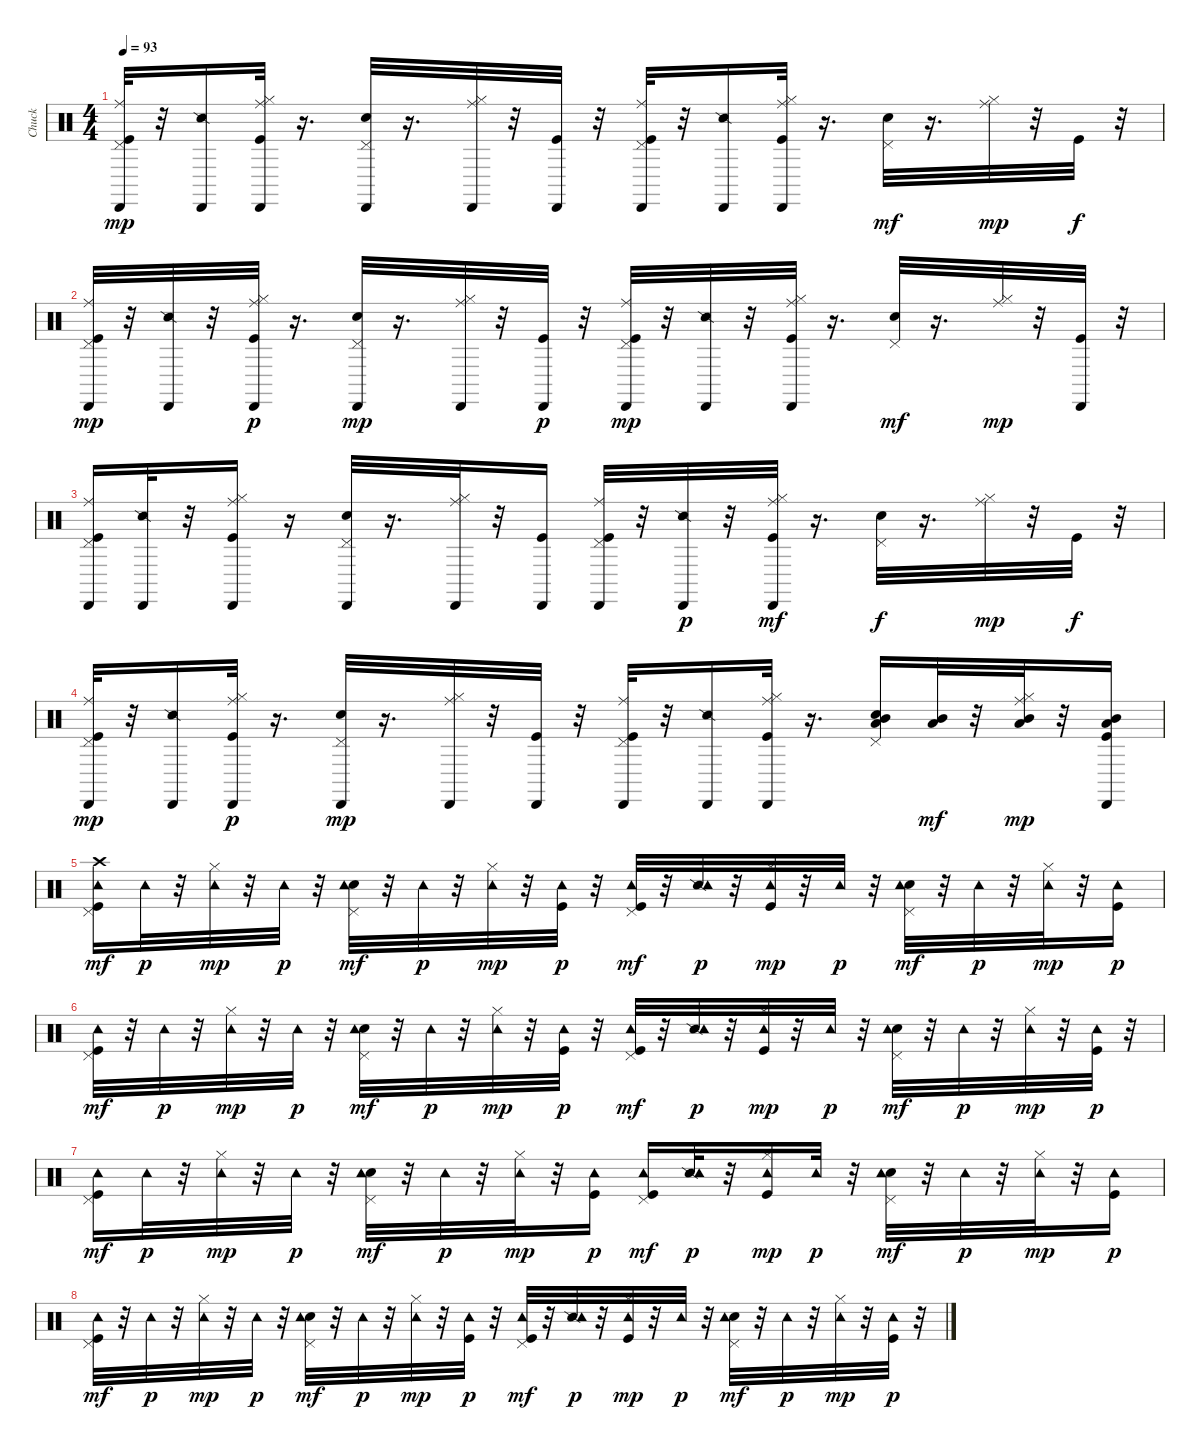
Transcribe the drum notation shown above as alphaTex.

\track ("Chuck" "Chuck") {instrument percussion}
\staff {score}
\articulation defaults
\ts (4 4)
\tempo 93
\clef neutral
\ks c
("Kick (hit)" "Pedal Hi-Hat (hit)" "Ride (middle)" "Cabasa (hit)").32{dy mp} r.32 ("Snare (side stick) 2" "Cabasa (hit)").16 ("Kick (hit)" "Hi-Hat (closed)" "Ride (middle)" "Cabasa (hit)").32 r.16{d} ("Electric Snare (hit)" "Pedal Hi-Hat (hit)" "Cabasa (hit)").32 r.16{d} ("Hi-Hat (closed)" "Ride (middle)" "Cabasa (hit)").32 r.32 ("Kick (hit)" "Cabasa (hit)").32 r.32 ("Kick (hit)" "Pedal Hi-Hat (hit)" "Ride (middle)" "Cabasa (hit)").32 r.32 ("Snare (side stick) 2" "Cabasa (hit)").16 ("Kick (hit)" "Hi-Hat (closed)" "Ride (middle)" "Cabasa (hit)").32 r.16{d} ("Electric Snare (hit)" "Pedal Hi-Hat (hit)").32{dy mf} r.16{d} ("Hi-Hat (closed)" "Ride (middle)").32{dy mp} r.32 "Kick (hit)".32{dy f} r.32 |
("Kick (hit)" "Pedal Hi-Hat (hit)" "Ride (middle)" "Cabasa (hit)").32{dy mp} r.32 ("Snare (side stick) 2" "Cabasa (hit)").32 r.32 ("Kick (hit)" "Hi-Hat (closed)" "Ride (middle)" "Cabasa (hit)").32{dy p} r.16{d} ("Electric Snare (hit)" "Pedal Hi-Hat (hit)" "Cabasa (hit)").32{dy mp} r.16{d} ("Hi-Hat (closed)" "Ride (middle)" "Cabasa (hit)").32 r.32 ("Kick (hit)" "Cabasa (hit)").32{dy p} r.32 ("Kick (hit)" "Pedal Hi-Hat (hit)" "Ride (middle)" "Cabasa (hit)").32{dy mp} r.32 ("Snare (side stick) 2" "Cabasa (hit)").32 r.32 ("Kick (hit)" "Hi-Hat (closed)" "Ride (middle)" "Cabasa (hit)").32 r.16{d} ("Electric Snare (hit)" "Pedal Hi-Hat (hit)").32{dy mf} r.16{d} ("Hi-Hat (closed)" "Ride (middle)").32{dy mp} r.32 ("Kick (hit)" "Cabasa (hit)").32 r.32 |
("Kick (hit)" "Pedal Hi-Hat (hit)" "Ride (middle)" "Cabasa (hit)").16 ("Snare (side stick) 2" "Cabasa (hit)").32 r.32 ("Kick (hit)" "Hi-Hat (closed)" "Ride (middle)" "Cabasa (hit)").16 r.16 ("Electric Snare (hit)" "Pedal Hi-Hat (hit)" "Cabasa (hit)").32 r.16{d} ("Hi-Hat (closed)" "Ride (middle)" "Cabasa (hit)").32 r.32 ("Kick (hit)" "Cabasa (hit)").16 ("Kick (hit)" "Pedal Hi-Hat (hit)" "Ride (middle)" "Cabasa (hit)").32 r.32 ("Snare (side stick) 2" "Cabasa (hit)").32{dy p} r.32 ("Kick (hit)" "Hi-Hat (closed)" "Ride (middle)" "Cabasa (hit)").32{dy mf} r.16{d} ("Electric Snare (hit)" "Pedal Hi-Hat (hit)").32{dy f} r.16{d} ("Hi-Hat (closed)" "Ride (middle)").32{dy mp} r.32 "Kick (hit)".32{dy f} r.32 |
("Kick (hit)" "Pedal Hi-Hat (hit)" "Ride (middle)" "Cabasa (hit)").32{dy mp} r.32 ("Snare (side stick) 2" "Cabasa (hit)").16 ("Kick (hit)" "Hi-Hat (closed)" "Ride (middle)" "Cabasa (hit)").32{dy p} r.16{d} ("Electric Snare (hit)" "Pedal Hi-Hat (hit)" "Cabasa (hit)").32{dy mp} r.16{d} ("Hi-Hat (closed)" "Ride (middle)" "Cabasa (hit)").32 r.32 ("Kick (hit)" "Cabasa (hit)").32 r.32 ("Kick (hit)" "Pedal Hi-Hat (hit)" "Ride (middle)" "Cabasa (hit)").32 r.32 ("Snare (side stick) 2" "Cabasa (hit)").16 ("Kick (hit)" "Hi-Hat (closed)" "Ride (middle)" "Cabasa (hit)").32 r.16{d} ("Electric Snare (hit)" "Pedal Hi-Hat (hit)" "Low Tom (hit)" "Mid Tom (hit)").16 ("Low Tom (hit)" "Mid Tom (hit)").32{dy mf} r.32 ("Hi-Hat (closed)" "Low Tom (hit)" "Mid Tom (hit)" "Ride (middle)").32{dy mp} r.32 ("Kick (hit)" "Low Tom (hit)" "Mid Tom (hit)" "Cabasa (hit)").16 |
("Kick (hit)" "Pedal Hi-Hat (hit)" "Crash high (hit)" "Tambourine (hit)").16{dy mf} "Tambourine (hit)".32{dy p} r.32 ("Hi-Hat (closed)" "Tambourine (hit)").32{dy mp} r.32 "Tambourine (hit)".32{dy p} r.32 ("Electric Snare (hit)" "Pedal Hi-Hat (hit)" "Tambourine (hit)").32{dy mf} r.32 "Tambourine (hit)".32{dy p} r.32 ("Hi-Hat (closed)" "Tambourine (hit)").32{dy mp} r.32 ("Kick (hit)" "Tambourine (hit)").32{dy p} r.32 ("Kick (hit)" "Pedal Hi-Hat (hit)" "Tambourine (hit)").32{dy mf} r.32 ("Snare (side stick) 2" "Tambourine (hit)").32{dy p} r.32 ("Kick (hit)" "Hi-Hat (closed)" "Tambourine (hit)").32{dy mp} r.32 "Tambourine (hit)".32{dy p} r.32 ("Electric Snare (hit)" "Pedal Hi-Hat (hit)" "Tambourine (hit)").32{dy mf} r.32 "Tambourine (hit)".32{dy p} r.32 ("Hi-Hat (closed)" "Tambourine (hit)").32{dy mp} r.32 ("Kick (hit)" "Tambourine (hit)").16{dy p} |
("Kick (hit)" "Pedal Hi-Hat (hit)" "Tambourine (hit)").32{dy mf} r.32 "Tambourine (hit)".32{dy p} r.32 ("Hi-Hat (closed)" "Tambourine (hit)").32{dy mp} r.32 "Tambourine (hit)".32{dy p} r.32 ("Electric Snare (hit)" "Pedal Hi-Hat (hit)" "Tambourine (hit)").32{dy mf} r.32 "Tambourine (hit)".32{dy p} r.32 ("Hi-Hat (closed)" "Tambourine (hit)").32{dy mp} r.32 ("Kick (hit)" "Tambourine (hit)").32{dy p} r.32 ("Kick (hit)" "Pedal Hi-Hat (hit)" "Tambourine (hit)").32{dy mf} r.32 ("Snare (side stick) 2" "Tambourine (hit)").32{dy p} r.32 ("Kick (hit)" "Hi-Hat (closed)" "Tambourine (hit)").32{dy mp} r.32 "Tambourine (hit)".32{dy p} r.32 ("Electric Snare (hit)" "Pedal Hi-Hat (hit)" "Tambourine (hit)").32{dy mf} r.32 "Tambourine (hit)".32{dy p} r.32 ("Hi-Hat (closed)" "Tambourine (hit)").32{dy mp} r.32 ("Kick (hit)" "Tambourine (hit)").32{dy p} r.32 |
("Kick (hit)" "Pedal Hi-Hat (hit)" "Tambourine (hit)").16{dy mf} "Tambourine (hit)".32{dy p} r.32 ("Hi-Hat (closed)" "Tambourine (hit)").32{dy mp} r.32 "Tambourine (hit)".32{dy p} r.32 ("Electric Snare (hit)" "Pedal Hi-Hat (hit)" "Tambourine (hit)").32{dy mf} r.32 "Tambourine (hit)".32{dy p} r.32 ("Hi-Hat (closed)" "Tambourine (hit)").32{dy mp} r.32 ("Kick (hit)" "Tambourine (hit)").16{dy p} ("Kick (hit)" "Pedal Hi-Hat (hit)" "Tambourine (hit)").16{dy mf} ("Snare (side stick) 2" "Tambourine (hit)").32{dy p} r.32 ("Kick (hit)" "Hi-Hat (closed)" "Tambourine (hit)").16{dy mp} "Tambourine (hit)".32{dy p} r.32 ("Electric Snare (hit)" "Pedal Hi-Hat (hit)" "Tambourine (hit)").32{dy mf} r.32 "Tambourine (hit)".32{dy p} r.32 ("Hi-Hat (closed)" "Tambourine (hit)").32{dy mp} r.32 ("Kick (hit)" "Tambourine (hit)").16{dy p} |
("Kick (hit)" "Pedal Hi-Hat (hit)" "Tambourine (hit)").32{dy mf} r.32 "Tambourine (hit)".32{dy p} r.32 ("Hi-Hat (closed)" "Tambourine (hit)").32{dy mp} r.32 "Tambourine (hit)".32{dy p} r.32 ("Electric Snare (hit)" "Pedal Hi-Hat (hit)" "Tambourine (hit)").32{dy mf} r.32 "Tambourine (hit)".32{dy p} r.32 ("Hi-Hat (closed)" "Tambourine (hit)").32{dy mp} r.32 ("Kick (hit)" "Tambourine (hit)").32{dy p} r.32 ("Kick (hit)" "Pedal Hi-Hat (hit)" "Tambourine (hit)").32{dy mf} r.32 ("Snare (side stick) 2" "Tambourine (hit)").32{dy p} r.32 ("Kick (hit)" "Hi-Hat (closed)" "Tambourine (hit)").32{dy mp} r.32 "Tambourine (hit)".32{dy p} r.32 ("Electric Snare (hit)" "Pedal Hi-Hat (hit)" "Tambourine (hit)").32{dy mf} r.32 "Tambourine (hit)".32{dy p} r.32 ("Hi-Hat (closed)" "Tambourine (hit)").32{dy mp} r.32 ("Kick (hit)" "Tambourine (hit)").32{dy p} r.32
